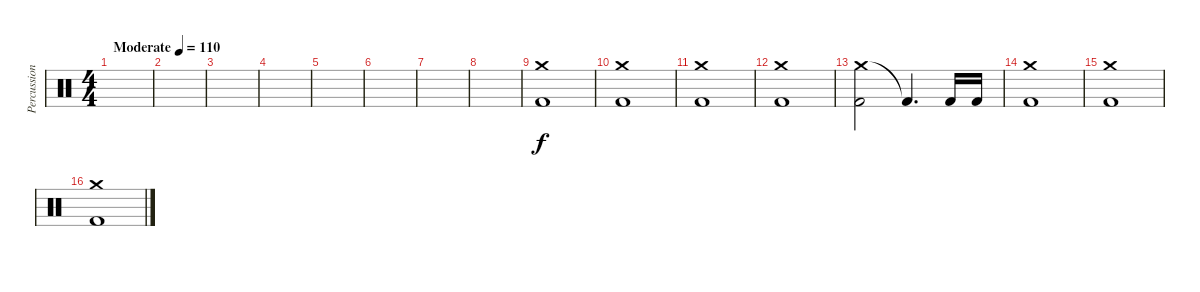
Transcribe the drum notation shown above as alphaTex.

\track ("Percussion" "Percussion") {instrument percussion}
\staff {score}
\articulation defaults
\ts (4 4)
\tempo (110 "Moderate")
\clef neutral
\ks c
|
|
|
|
|
|
|
|
("Crash medium (hit)" "Kick (hit) 2").1 |
("Crash medium (hit)" "Kick (hit) 2").1 |
("Crash medium (hit)" "Kick (hit) 2").1 |
("Crash medium (hit)" "Kick (hit) 2").1 |
("Crash medium (hit)" "Kick (hit) 2").2 "Kick (hit) 2"{t}.4{d} "Kick (hit) 2".16 "Kick (hit) 2".16 |
("Crash medium (hit)" "Kick (hit) 2").1 |
("Crash medium (hit)" "Kick (hit) 2").1 |
("Crash medium (hit)" "Kick (hit) 2").1
